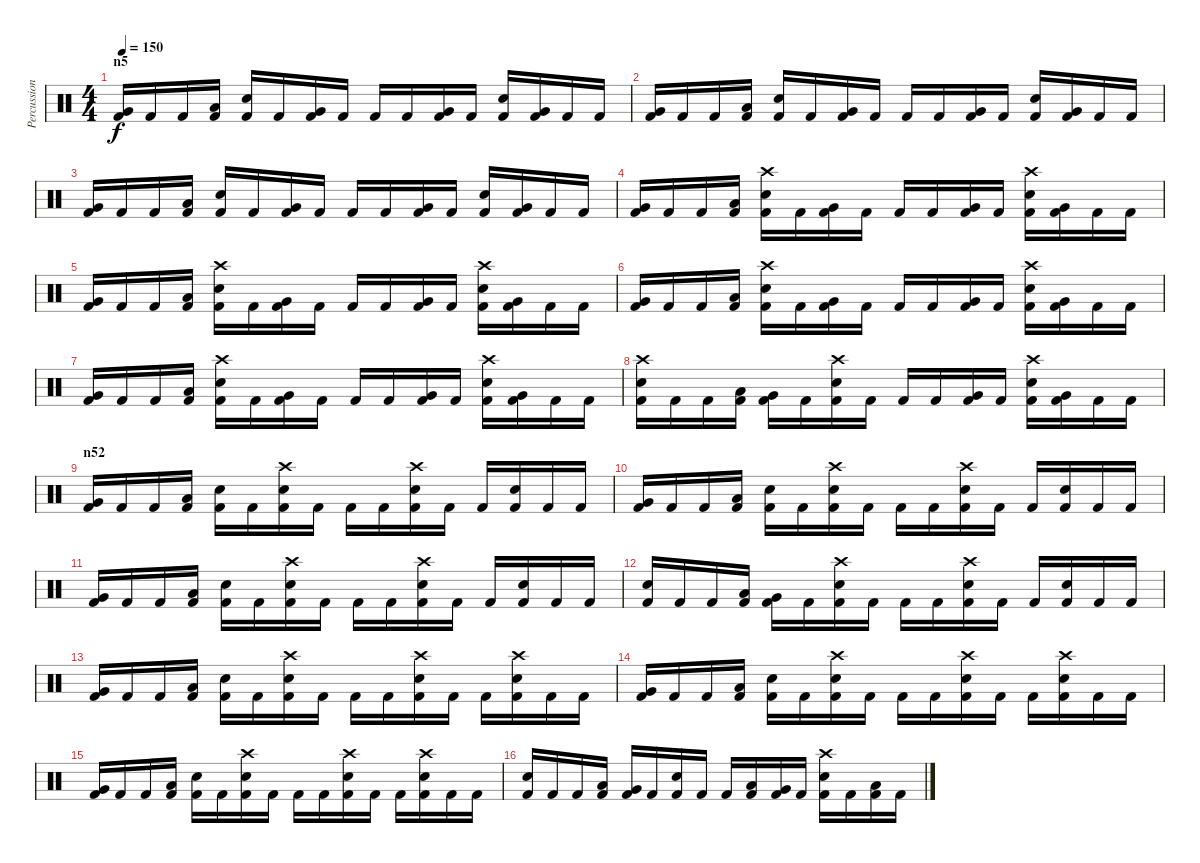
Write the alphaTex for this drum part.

\track ("Percussion" "Percussion") {instrument percussion}
\staff {score}
\articulation defaults
\ts (4 4)
\section ("" "n5")
\tempo 150
\clef neutral
\ks c
("Kick (hit) 2" "Very Low Tom (hit)").16{dy f} "Kick (hit) 2".16 "Kick (hit) 2".16 ("Kick (hit) 2" "Low Floor Tom (hit)").16 ("Kick (hit) 2" "Electric Snare (hit)").16 "Kick (hit) 2".16 ("Kick (hit) 2" "Very Low Tom (hit)").16 "Kick (hit) 2".16 "Kick (hit) 2".16 "Kick (hit) 2".16 ("Kick (hit) 2" "Very Low Tom (hit)").16 "Kick (hit) 2".16 ("Kick (hit) 2" "Electric Snare (hit)").16 ("Kick (hit) 2" "Very Low Tom (hit)").16 "Kick (hit) 2".16 "Kick (hit) 2".16 |
("Kick (hit) 2" "Very Low Tom (hit)").16 "Kick (hit) 2".16 "Kick (hit) 2".16 ("Kick (hit) 2" "Low Floor Tom (hit)").16 ("Kick (hit) 2" "Electric Snare (hit)").16 "Kick (hit) 2".16 ("Kick (hit) 2" "Very Low Tom (hit)").16 "Kick (hit) 2".16 "Kick (hit) 2".16 "Kick (hit) 2".16 ("Kick (hit) 2" "Very Low Tom (hit)").16 "Kick (hit) 2".16 ("Kick (hit) 2" "Electric Snare (hit)").16 ("Kick (hit) 2" "Very Low Tom (hit)").16 "Kick (hit) 2".16 "Kick (hit) 2".16 |
("Kick (hit) 2" "Very Low Tom (hit)").16 "Kick (hit) 2".16 "Kick (hit) 2".16 ("Kick (hit) 2" "Low Floor Tom (hit)").16 ("Kick (hit) 2" "Electric Snare (hit)").16 "Kick (hit) 2".16 ("Kick (hit) 2" "Very Low Tom (hit)").16 "Kick (hit) 2".16 "Kick (hit) 2".16 "Kick (hit) 2".16 ("Kick (hit) 2" "Very Low Tom (hit)").16 "Kick (hit) 2".16 ("Kick (hit) 2" "Electric Snare (hit)").16 ("Kick (hit) 2" "Very Low Tom (hit)").16 "Kick (hit) 2".16 "Kick (hit) 2".16 |
("Kick (hit) 2" "Very Low Tom (hit)").16 "Kick (hit) 2".16 "Kick (hit) 2".16 ("Kick (hit) 2" "Low Floor Tom (hit)").16 ("Kick (hit) 2" "Electric Snare (hit)" "Crash high (hit)").16 "Kick (hit) 2".16 ("Kick (hit) 2" "Very Low Tom (hit)").16 "Kick (hit) 2".16 "Kick (hit) 2".16 "Kick (hit) 2".16 ("Kick (hit) 2" "Very Low Tom (hit)").16 "Kick (hit) 2".16 ("Kick (hit) 2" "Electric Snare (hit)" "Crash high (hit)").16 ("Kick (hit) 2" "Very Low Tom (hit)").16 "Kick (hit) 2".16 "Kick (hit) 2".16 |
("Kick (hit) 2" "Very Low Tom (hit)").16 "Kick (hit) 2".16 "Kick (hit) 2".16 ("Kick (hit) 2" "Low Floor Tom (hit)").16 ("Kick (hit) 2" "Electric Snare (hit)" "Crash high (hit)").16 "Kick (hit) 2".16 ("Kick (hit) 2" "Very Low Tom (hit)").16 "Kick (hit) 2".16 "Kick (hit) 2".16 "Kick (hit) 2".16 ("Kick (hit) 2" "Very Low Tom (hit)").16 "Kick (hit) 2".16 ("Kick (hit) 2" "Electric Snare (hit)" "Crash high (hit)").16 ("Kick (hit) 2" "Very Low Tom (hit)").16 "Kick (hit) 2".16 "Kick (hit) 2".16 |
("Kick (hit) 2" "Very Low Tom (hit)").16 "Kick (hit) 2".16 "Kick (hit) 2".16 ("Kick (hit) 2" "Low Floor Tom (hit)").16 ("Kick (hit) 2" "Electric Snare (hit)" "Crash high (hit)").16 "Kick (hit) 2".16 ("Kick (hit) 2" "Very Low Tom (hit)").16 "Kick (hit) 2".16 "Kick (hit) 2".16 "Kick (hit) 2".16 ("Kick (hit) 2" "Very Low Tom (hit)").16 "Kick (hit) 2".16 ("Kick (hit) 2" "Electric Snare (hit)" "Crash high (hit)").16 ("Kick (hit) 2" "Very Low Tom (hit)").16 "Kick (hit) 2".16 "Kick (hit) 2".16 |
("Kick (hit) 2" "Very Low Tom (hit)").16 "Kick (hit) 2".16 "Kick (hit) 2".16 ("Kick (hit) 2" "Low Floor Tom (hit)").16 ("Kick (hit) 2" "Electric Snare (hit)" "Crash high (hit)").16 "Kick (hit) 2".16 ("Kick (hit) 2" "Very Low Tom (hit)").16 "Kick (hit) 2".16 "Kick (hit) 2".16 "Kick (hit) 2".16 ("Kick (hit) 2" "Very Low Tom (hit)").16 "Kick (hit) 2".16 ("Kick (hit) 2" "Electric Snare (hit)" "Crash high (hit)").16 ("Kick (hit) 2" "Very Low Tom (hit)").16 "Kick (hit) 2".16 "Kick (hit) 2".16 |
("Kick (hit) 2" "Electric Snare (hit)" "Crash high (hit)").16 "Kick (hit) 2".16 "Kick (hit) 2".16 ("Kick (hit) 2" "Low Floor Tom (hit)").16 ("Kick (hit) 2" "Very Low Tom (hit)").16 "Kick (hit) 2".16 ("Kick (hit) 2" "Electric Snare (hit)" "Crash high (hit)").16 "Kick (hit) 2".16 "Kick (hit) 2".16 "Kick (hit) 2".16 ("Kick (hit) 2" "Very Low Tom (hit)").16 "Kick (hit) 2".16 ("Kick (hit) 2" "Electric Snare (hit)" "Crash high (hit)").16 ("Kick (hit) 2" "Very Low Tom (hit)").16 "Kick (hit) 2".16 "Kick (hit) 2".16 |
\section ("" "n52")
("Kick (hit) 2" "Very Low Tom (hit)").16 "Kick (hit) 2".16 "Kick (hit) 2".16 ("Kick (hit) 2" "Low Floor Tom (hit)").16 ("Kick (hit) 2" "Electric Snare (hit)").16 "Kick (hit) 2".16 ("Kick (hit) 2" "Electric Snare (hit)" "Crash high (hit)").16 "Kick (hit) 2".16 "Kick (hit) 2".16 "Kick (hit) 2".16 ("Kick (hit) 2" "Electric Snare (hit)" "Crash high (hit)").16 "Kick (hit) 2".16 "Kick (hit) 2".16 ("Kick (hit) 2" "Electric Snare (hit)").16 "Kick (hit) 2".16 "Kick (hit) 2".16 |
("Kick (hit) 2" "Very Low Tom (hit)").16 "Kick (hit) 2".16 "Kick (hit) 2".16 ("Kick (hit) 2" "Low Floor Tom (hit)").16 ("Kick (hit) 2" "Electric Snare (hit)").16 "Kick (hit) 2".16 ("Kick (hit) 2" "Electric Snare (hit)" "Crash high (hit)").16 "Kick (hit) 2".16 "Kick (hit) 2".16 "Kick (hit) 2".16 ("Kick (hit) 2" "Electric Snare (hit)" "Crash high (hit)").16 "Kick (hit) 2".16 "Kick (hit) 2".16 ("Kick (hit) 2" "Electric Snare (hit)").16 "Kick (hit) 2".16 "Kick (hit) 2".16 |
("Kick (hit) 2" "Very Low Tom (hit)").16 "Kick (hit) 2".16 "Kick (hit) 2".16 ("Kick (hit) 2" "Low Floor Tom (hit)").16 ("Kick (hit) 2" "Electric Snare (hit)").16 "Kick (hit) 2".16 ("Kick (hit) 2" "Electric Snare (hit)" "Crash high (hit)").16 "Kick (hit) 2".16 "Kick (hit) 2".16 "Kick (hit) 2".16 ("Kick (hit) 2" "Electric Snare (hit)" "Crash high (hit)").16 "Kick (hit) 2".16 "Kick (hit) 2".16 ("Kick (hit) 2" "Electric Snare (hit)").16 "Kick (hit) 2".16 "Kick (hit) 2".16 |
("Kick (hit) 2" "Electric Snare (hit)").16 "Kick (hit) 2".16 "Kick (hit) 2".16 ("Kick (hit) 2" "Low Floor Tom (hit)").16 ("Kick (hit) 2" "Very Low Tom (hit)").16 "Kick (hit) 2".16 ("Kick (hit) 2" "Electric Snare (hit)" "Crash high (hit)").16 "Kick (hit) 2".16 "Kick (hit) 2".16 "Kick (hit) 2".16 ("Kick (hit) 2" "Electric Snare (hit)" "Crash high (hit)").16 "Kick (hit) 2".16 "Kick (hit) 2".16 ("Kick (hit) 2" "Electric Snare (hit)").16 "Kick (hit) 2".16 "Kick (hit) 2".16 |
("Kick (hit) 2" "Very Low Tom (hit)").16 "Kick (hit) 2".16 "Kick (hit) 2".16 ("Kick (hit) 2" "Low Floor Tom (hit)").16 ("Kick (hit) 2" "Electric Snare (hit)").16 "Kick (hit) 2".16 ("Kick (hit) 2" "Electric Snare (hit)" "Crash high (hit)").16 "Kick (hit) 2".16 "Kick (hit) 2".16 "Kick (hit) 2".16 ("Kick (hit) 2" "Electric Snare (hit)" "Crash high (hit)").16 "Kick (hit) 2".16 "Kick (hit) 2".16 ("Kick (hit) 2" "Electric Snare (hit)" "Crash high (hit)").16 "Kick (hit) 2".16 "Kick (hit) 2".16 |
("Kick (hit) 2" "Very Low Tom (hit)").16 "Kick (hit) 2".16 "Kick (hit) 2".16 ("Kick (hit) 2" "Low Floor Tom (hit)").16 ("Kick (hit) 2" "Electric Snare (hit)").16 "Kick (hit) 2".16 ("Kick (hit) 2" "Electric Snare (hit)" "Crash high (hit)").16 "Kick (hit) 2".16 "Kick (hit) 2".16 "Kick (hit) 2".16 ("Kick (hit) 2" "Electric Snare (hit)" "Crash high (hit)").16 "Kick (hit) 2".16 "Kick (hit) 2".16 ("Kick (hit) 2" "Electric Snare (hit)" "Crash high (hit)").16 "Kick (hit) 2".16 "Kick (hit) 2".16 |
("Kick (hit) 2" "Very Low Tom (hit)").16 "Kick (hit) 2".16 "Kick (hit) 2".16 ("Kick (hit) 2" "Low Floor Tom (hit)").16 ("Kick (hit) 2" "Electric Snare (hit)").16 "Kick (hit) 2".16 ("Kick (hit) 2" "Electric Snare (hit)" "Crash high (hit)").16 "Kick (hit) 2".16 "Kick (hit) 2".16 "Kick (hit) 2".16 ("Kick (hit) 2" "Electric Snare (hit)" "Crash high (hit)").16 "Kick (hit) 2".16 "Kick (hit) 2".16 ("Kick (hit) 2" "Electric Snare (hit)" "Crash high (hit)").16 "Kick (hit) 2".16 "Kick (hit) 2".16 |
("Kick (hit) 2" "Electric Snare (hit)").16 "Kick (hit) 2".16 "Kick (hit) 2".16 ("Kick (hit) 2" "Low Floor Tom (hit)").16 ("Kick (hit) 2" "Very Low Tom (hit)").16 "Kick (hit) 2".16 ("Kick (hit) 2" "Electric Snare (hit)").16 "Kick (hit) 2".16 "Kick (hit) 2".16 ("Kick (hit) 2" "Low Floor Tom (hit)").16 ("Kick (hit) 2" "Very Low Tom (hit)").16 "Kick (hit) 2".16 ("Kick (hit) 2" "Electric Snare (hit)" "Crash high (hit)").16 "Kick (hit) 2".16 ("Kick (hit) 2" "Low Floor Tom (hit)").16 "Kick (hit) 2".16
